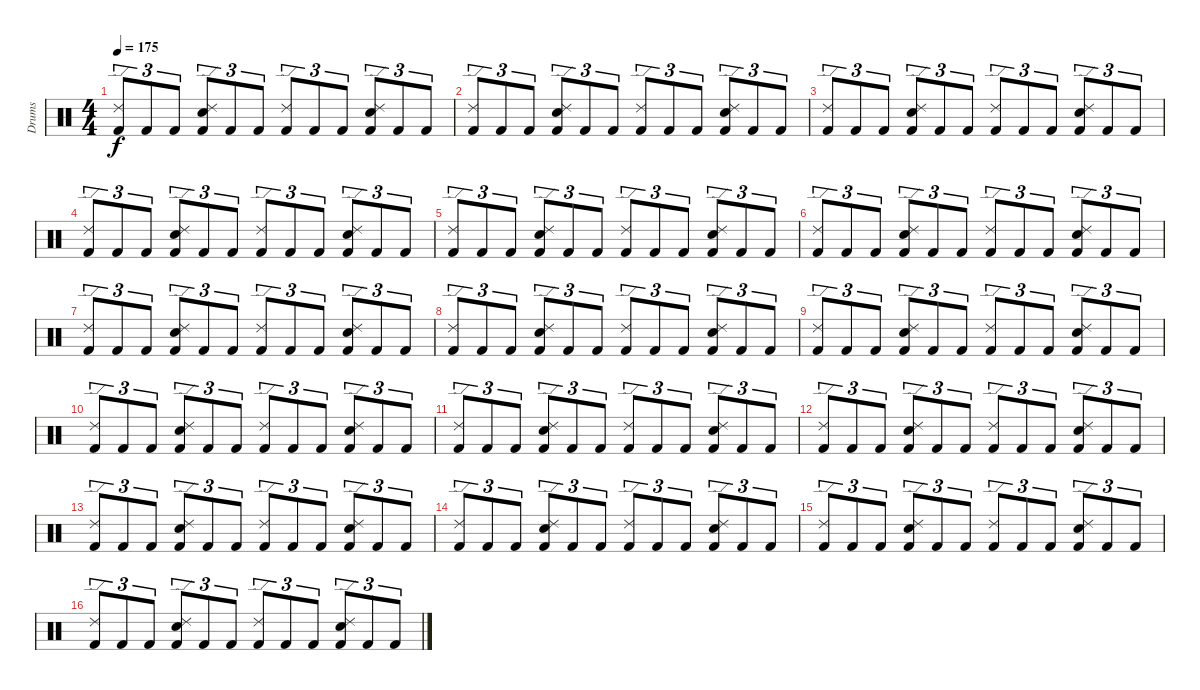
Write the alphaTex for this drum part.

\track ("Drums" "Drums") {instrument percussion}
\staff {score}
\articulation defaults
\ts (4 4)
\tempo 175
\clef neutral
\ks c
("Ride (edge) 2" "Kick (hit) 2").8{tu (3 2) dy f} "Kick (hit) 2".8{tu (3 2)} "Kick (hit) 2".8{tu (3 2)} ("Electric Snare (hit)" "Ride (edge) 2" "Kick (hit) 2").8{tu (3 2)} "Kick (hit) 2".8{tu (3 2)} "Kick (hit) 2".8{tu (3 2)} ("Ride (edge) 2" "Kick (hit) 2").8{tu (3 2)} "Kick (hit) 2".8{tu (3 2)} "Kick (hit) 2".8{tu (3 2)} ("Electric Snare (hit)" "Ride (edge) 2" "Kick (hit) 2").8{tu (3 2)} "Kick (hit) 2".8{tu (3 2)} "Kick (hit) 2".8{tu (3 2)} |
("Ride (edge) 2" "Kick (hit) 2").8{tu (3 2)} "Kick (hit) 2".8{tu (3 2)} "Kick (hit) 2".8{tu (3 2)} ("Electric Snare (hit)" "Ride (edge) 2" "Kick (hit) 2").8{tu (3 2)} "Kick (hit) 2".8{tu (3 2)} "Kick (hit) 2".8{tu (3 2)} ("Ride (edge) 2" "Kick (hit) 2").8{tu (3 2)} "Kick (hit) 2".8{tu (3 2)} "Kick (hit) 2".8{tu (3 2)} ("Electric Snare (hit)" "Ride (edge) 2" "Kick (hit) 2").8{tu (3 2)} "Kick (hit) 2".8{tu (3 2)} "Kick (hit) 2".8{tu (3 2)} |
("Ride (edge) 2" "Kick (hit) 2").8{tu (3 2)} "Kick (hit) 2".8{tu (3 2)} "Kick (hit) 2".8{tu (3 2)} ("Electric Snare (hit)" "Ride (edge) 2" "Kick (hit) 2").8{tu (3 2)} "Kick (hit) 2".8{tu (3 2)} "Kick (hit) 2".8{tu (3 2)} ("Ride (edge) 2" "Kick (hit) 2").8{tu (3 2)} "Kick (hit) 2".8{tu (3 2)} "Kick (hit) 2".8{tu (3 2)} ("Electric Snare (hit)" "Ride (edge) 2" "Kick (hit) 2").8{tu (3 2)} "Kick (hit) 2".8{tu (3 2)} "Kick (hit) 2".8{tu (3 2)} |
("Ride (edge) 2" "Kick (hit) 2").8{tu (3 2)} "Kick (hit) 2".8{tu (3 2)} "Kick (hit) 2".8{tu (3 2)} ("Electric Snare (hit)" "Ride (edge) 2" "Kick (hit) 2").8{tu (3 2)} "Kick (hit) 2".8{tu (3 2)} "Kick (hit) 2".8{tu (3 2)} ("Ride (edge) 2" "Kick (hit) 2").8{tu (3 2)} "Kick (hit) 2".8{tu (3 2)} "Kick (hit) 2".8{tu (3 2)} ("Electric Snare (hit)" "Ride (edge) 2" "Kick (hit) 2").8{tu (3 2)} "Kick (hit) 2".8{tu (3 2)} "Kick (hit) 2".8{tu (3 2)} |
("Ride (edge) 2" "Kick (hit) 2").8{tu (3 2)} "Kick (hit) 2".8{tu (3 2)} "Kick (hit) 2".8{tu (3 2)} ("Electric Snare (hit)" "Ride (edge) 2" "Kick (hit) 2").8{tu (3 2)} "Kick (hit) 2".8{tu (3 2)} "Kick (hit) 2".8{tu (3 2)} ("Ride (edge) 2" "Kick (hit) 2").8{tu (3 2)} "Kick (hit) 2".8{tu (3 2)} "Kick (hit) 2".8{tu (3 2)} ("Electric Snare (hit)" "Ride (edge) 2" "Kick (hit) 2").8{tu (3 2)} "Kick (hit) 2".8{tu (3 2)} "Kick (hit) 2".8{tu (3 2)} |
("Ride (edge) 2" "Kick (hit) 2").8{tu (3 2)} "Kick (hit) 2".8{tu (3 2)} "Kick (hit) 2".8{tu (3 2)} ("Electric Snare (hit)" "Ride (edge) 2" "Kick (hit) 2").8{tu (3 2)} "Kick (hit) 2".8{tu (3 2)} "Kick (hit) 2".8{tu (3 2)} ("Ride (edge) 2" "Kick (hit) 2").8{tu (3 2)} "Kick (hit) 2".8{tu (3 2)} "Kick (hit) 2".8{tu (3 2)} ("Electric Snare (hit)" "Ride (edge) 2" "Kick (hit) 2").8{tu (3 2)} "Kick (hit) 2".8{tu (3 2)} "Kick (hit) 2".8{tu (3 2)} |
("Ride (edge) 2" "Kick (hit) 2").8{tu (3 2)} "Kick (hit) 2".8{tu (3 2)} "Kick (hit) 2".8{tu (3 2)} ("Electric Snare (hit)" "Ride (edge) 2" "Kick (hit) 2").8{tu (3 2)} "Kick (hit) 2".8{tu (3 2)} "Kick (hit) 2".8{tu (3 2)} ("Ride (edge) 2" "Kick (hit) 2").8{tu (3 2)} "Kick (hit) 2".8{tu (3 2)} "Kick (hit) 2".8{tu (3 2)} ("Electric Snare (hit)" "Ride (edge) 2" "Kick (hit) 2").8{tu (3 2)} "Kick (hit) 2".8{tu (3 2)} "Kick (hit) 2".8{tu (3 2)} |
("Ride (edge) 2" "Kick (hit) 2").8{tu (3 2)} "Kick (hit) 2".8{tu (3 2)} "Kick (hit) 2".8{tu (3 2)} ("Electric Snare (hit)" "Ride (edge) 2" "Kick (hit) 2").8{tu (3 2)} "Kick (hit) 2".8{tu (3 2)} "Kick (hit) 2".8{tu (3 2)} ("Ride (edge) 2" "Kick (hit) 2").8{tu (3 2)} "Kick (hit) 2".8{tu (3 2)} "Kick (hit) 2".8{tu (3 2)} ("Electric Snare (hit)" "Ride (edge) 2" "Kick (hit) 2").8{tu (3 2)} "Kick (hit) 2".8{tu (3 2)} "Kick (hit) 2".8{tu (3 2)} |
("Ride (edge) 2" "Kick (hit) 2").8{tu (3 2)} "Kick (hit) 2".8{tu (3 2)} "Kick (hit) 2".8{tu (3 2)} ("Electric Snare (hit)" "Ride (edge) 2" "Kick (hit) 2").8{tu (3 2)} "Kick (hit) 2".8{tu (3 2)} "Kick (hit) 2".8{tu (3 2)} ("Ride (edge) 2" "Kick (hit) 2").8{tu (3 2)} "Kick (hit) 2".8{tu (3 2)} "Kick (hit) 2".8{tu (3 2)} ("Electric Snare (hit)" "Ride (edge) 2" "Kick (hit) 2").8{tu (3 2)} "Kick (hit) 2".8{tu (3 2)} "Kick (hit) 2".8{tu (3 2)} |
("Ride (edge) 2" "Kick (hit) 2").8{tu (3 2)} "Kick (hit) 2".8{tu (3 2)} "Kick (hit) 2".8{tu (3 2)} ("Electric Snare (hit)" "Ride (edge) 2" "Kick (hit) 2").8{tu (3 2)} "Kick (hit) 2".8{tu (3 2)} "Kick (hit) 2".8{tu (3 2)} ("Ride (edge) 2" "Kick (hit) 2").8{tu (3 2)} "Kick (hit) 2".8{tu (3 2)} "Kick (hit) 2".8{tu (3 2)} ("Electric Snare (hit)" "Ride (edge) 2" "Kick (hit) 2").8{tu (3 2)} "Kick (hit) 2".8{tu (3 2)} "Kick (hit) 2".8{tu (3 2)} |
("Ride (edge) 2" "Kick (hit) 2").8{tu (3 2)} "Kick (hit) 2".8{tu (3 2)} "Kick (hit) 2".8{tu (3 2)} ("Electric Snare (hit)" "Ride (edge) 2" "Kick (hit) 2").8{tu (3 2)} "Kick (hit) 2".8{tu (3 2)} "Kick (hit) 2".8{tu (3 2)} ("Ride (edge) 2" "Kick (hit) 2").8{tu (3 2)} "Kick (hit) 2".8{tu (3 2)} "Kick (hit) 2".8{tu (3 2)} ("Electric Snare (hit)" "Ride (edge) 2" "Kick (hit) 2").8{tu (3 2)} "Kick (hit) 2".8{tu (3 2)} "Kick (hit) 2".8{tu (3 2)} |
("Ride (edge) 2" "Kick (hit) 2").8{tu (3 2)} "Kick (hit) 2".8{tu (3 2)} "Kick (hit) 2".8{tu (3 2)} ("Electric Snare (hit)" "Ride (edge) 2" "Kick (hit) 2").8{tu (3 2)} "Kick (hit) 2".8{tu (3 2)} "Kick (hit) 2".8{tu (3 2)} ("Ride (edge) 2" "Kick (hit) 2").8{tu (3 2)} "Kick (hit) 2".8{tu (3 2)} "Kick (hit) 2".8{tu (3 2)} ("Electric Snare (hit)" "Ride (edge) 2" "Kick (hit) 2").8{tu (3 2)} "Kick (hit) 2".8{tu (3 2)} "Kick (hit) 2".8{tu (3 2)} |
("Ride (edge) 2" "Kick (hit) 2").8{tu (3 2)} "Kick (hit) 2".8{tu (3 2)} "Kick (hit) 2".8{tu (3 2)} ("Electric Snare (hit)" "Ride (edge) 2" "Kick (hit) 2").8{tu (3 2)} "Kick (hit) 2".8{tu (3 2)} "Kick (hit) 2".8{tu (3 2)} ("Ride (edge) 2" "Kick (hit) 2").8{tu (3 2)} "Kick (hit) 2".8{tu (3 2)} "Kick (hit) 2".8{tu (3 2)} ("Electric Snare (hit)" "Ride (edge) 2" "Kick (hit) 2").8{tu (3 2)} "Kick (hit) 2".8{tu (3 2)} "Kick (hit) 2".8{tu (3 2)} |
("Ride (edge) 2" "Kick (hit) 2").8{tu (3 2)} "Kick (hit) 2".8{tu (3 2)} "Kick (hit) 2".8{tu (3 2)} ("Electric Snare (hit)" "Ride (edge) 2" "Kick (hit) 2").8{tu (3 2)} "Kick (hit) 2".8{tu (3 2)} "Kick (hit) 2".8{tu (3 2)} ("Ride (edge) 2" "Kick (hit) 2").8{tu (3 2)} "Kick (hit) 2".8{tu (3 2)} "Kick (hit) 2".8{tu (3 2)} ("Electric Snare (hit)" "Ride (edge) 2" "Kick (hit) 2").8{tu (3 2)} "Kick (hit) 2".8{tu (3 2)} "Kick (hit) 2".8{tu (3 2)} |
("Ride (edge) 2" "Kick (hit) 2").8{tu (3 2)} "Kick (hit) 2".8{tu (3 2)} "Kick (hit) 2".8{tu (3 2)} ("Electric Snare (hit)" "Ride (edge) 2" "Kick (hit) 2").8{tu (3 2)} "Kick (hit) 2".8{tu (3 2)} "Kick (hit) 2".8{tu (3 2)} ("Ride (edge) 2" "Kick (hit) 2").8{tu (3 2)} "Kick (hit) 2".8{tu (3 2)} "Kick (hit) 2".8{tu (3 2)} ("Electric Snare (hit)" "Ride (edge) 2" "Kick (hit) 2").8{tu (3 2)} "Kick (hit) 2".8{tu (3 2)} "Kick (hit) 2".8{tu (3 2)} |
("Ride (edge) 2" "Kick (hit) 2").8{tu (3 2)} "Kick (hit) 2".8{tu (3 2)} "Kick (hit) 2".8{tu (3 2)} ("Electric Snare (hit)" "Ride (edge) 2" "Kick (hit) 2").8{tu (3 2)} "Kick (hit) 2".8{tu (3 2)} "Kick (hit) 2".8{tu (3 2)} ("Ride (edge) 2" "Kick (hit) 2").8{tu (3 2)} "Kick (hit) 2".8{tu (3 2)} "Kick (hit) 2".8{tu (3 2)} ("Electric Snare (hit)" "Ride (edge) 2" "Kick (hit) 2").8{tu (3 2)} "Kick (hit) 2".8{tu (3 2)} "Kick (hit) 2".8{tu (3 2)}
